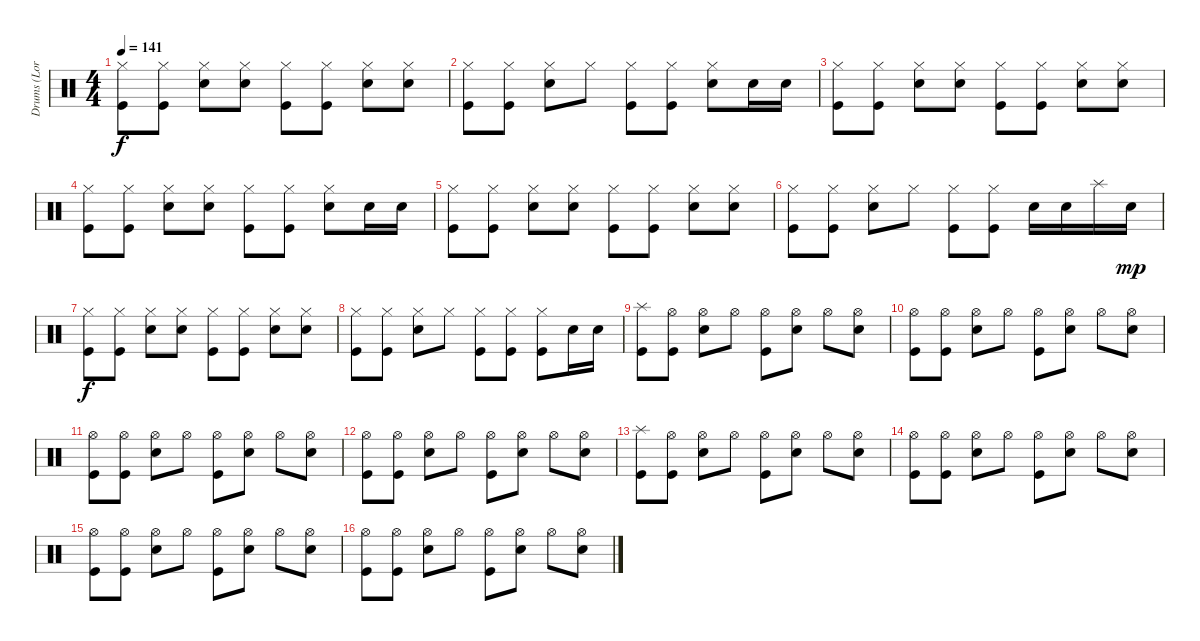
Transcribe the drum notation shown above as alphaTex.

\track ("Drums (Lora)" "Drums (Lor") {instrument percussion}
\staff {score}
\articulation defaults
\ts (4 4)
\tempo 141
\clef neutral
\ks c
("Hi-Hat (closed)" "Kick (hit)").8{dy f} ("Hi-Hat (closed)" "Kick (hit)").8 ("Hi-Hat (closed)" "Snare (hit) 2").8 ("Hi-Hat (closed)" "Snare (hit) 2").8 ("Hi-Hat (closed)" "Kick (hit)").8 ("Hi-Hat (closed)" "Kick (hit)").8 ("Hi-Hat (closed)" "Snare (hit) 2").8 ("Hi-Hat (closed)" "Snare (hit) 2").8 |
("Hi-Hat (closed)" "Kick (hit)").8 ("Hi-Hat (closed)" "Kick (hit)").8 ("Hi-Hat (closed)" "Snare (hit) 2").8 "Hi-Hat (closed)".8 ("Hi-Hat (closed)" "Kick (hit)").8 ("Hi-Hat (closed)" "Kick (hit)").8 ("Hi-Hat (closed)" "Snare (hit) 2").8 "Snare (hit) 2".16 "Snare (hit) 2".16 |
("Hi-Hat (closed)" "Kick (hit)").8 ("Hi-Hat (closed)" "Kick (hit)").8 ("Hi-Hat (closed)" "Snare (hit) 2").8 ("Hi-Hat (closed)" "Snare (hit) 2").8 ("Hi-Hat (closed)" "Kick (hit)").8 ("Hi-Hat (closed)" "Kick (hit)").8 ("Hi-Hat (closed)" "Snare (hit) 2").8 ("Hi-Hat (closed)" "Snare (hit) 2").8 |
("Hi-Hat (closed)" "Kick (hit)").8 ("Hi-Hat (closed)" "Kick (hit)").8 ("Hi-Hat (closed)" "Snare (hit) 2").8 ("Hi-Hat (closed)" "Snare (hit) 2").8 ("Hi-Hat (closed)" "Kick (hit)").8 ("Hi-Hat (closed)" "Kick (hit)").8 ("Hi-Hat (closed)" "Snare (hit) 2").8 "Snare (hit) 2".16 "Snare (hit) 2".16 |
("Hi-Hat (closed)" "Kick (hit)").8 ("Hi-Hat (closed)" "Kick (hit)").8 ("Hi-Hat (closed)" "Snare (hit) 2").8 ("Hi-Hat (closed)" "Snare (hit) 2").8 ("Hi-Hat (closed)" "Kick (hit)").8 ("Hi-Hat (closed)" "Kick (hit)").8 ("Hi-Hat (closed)" "Snare (hit) 2").8 ("Hi-Hat (closed)" "Snare (hit) 2").8 |
("Hi-Hat (closed)" "Kick (hit)").8 ("Hi-Hat (closed)" "Kick (hit)").8 ("Hi-Hat (closed)" "Snare (hit) 2").8 "Hi-Hat (closed)".8 ("Hi-Hat (closed)" "Kick (hit)").8 ("Hi-Hat (closed)" "Kick (hit)").8 "Snare (hit) 2".16 "Snare (hit) 2".16 "Splash (hit)".16 "Snare (hit) 2".16{dy mp} |
("Hi-Hat (closed)" "Kick (hit)").8{dy f} ("Hi-Hat (closed)" "Kick (hit)").8 ("Hi-Hat (closed)" "Snare (hit) 2").8 ("Hi-Hat (closed)" "Snare (hit) 2").8 ("Hi-Hat (closed)" "Kick (hit)").8 ("Hi-Hat (closed)" "Kick (hit)").8 ("Hi-Hat (closed)" "Snare (hit) 2").8 ("Hi-Hat (closed)" "Snare (hit) 2").8 |
("Hi-Hat (closed)" "Kick (hit)").8 ("Hi-Hat (closed)" "Kick (hit)").8 ("Hi-Hat (closed)" "Snare (hit) 2").8 "Hi-Hat (closed)".8 ("Hi-Hat (closed)" "Kick (hit)").8 ("Hi-Hat (closed)" "Kick (hit)").8 ("Hi-Hat (closed)" "Kick (hit)").8 "Snare (hit) 2".16 "Snare (hit) 2".16 |
("Splash (hit)" "Kick (hit)").8 ("Hi-Hat (open)" "Kick (hit)").8 ("Hi-Hat (open)" "Snare (hit) 2").8 "Hi-Hat (open)".8 ("Hi-Hat (open)" "Kick (hit)").8 ("Hi-Hat (open)" "Snare (hit) 2").8 "Hi-Hat (open)".8 ("Hi-Hat (open)" "Snare (hit) 2").8 |
("Hi-Hat (open)" "Kick (hit)").8 ("Hi-Hat (open)" "Kick (hit)").8 ("Hi-Hat (open)" "Snare (hit) 2").8 "Hi-Hat (open)".8 ("Hi-Hat (open)" "Kick (hit)").8 ("Hi-Hat (open)" "Snare (hit) 2").8 "Hi-Hat (open)".8 ("Hi-Hat (open)" "Snare (hit) 2").8 |
("Hi-Hat (open)" "Kick (hit)").8 ("Hi-Hat (open)" "Kick (hit)").8 ("Hi-Hat (open)" "Snare (hit) 2").8 "Hi-Hat (open)".8 ("Hi-Hat (open)" "Kick (hit)").8 ("Hi-Hat (open)" "Snare (hit) 2").8 "Hi-Hat (open)".8 ("Hi-Hat (open)" "Snare (hit) 2").8 |
("Hi-Hat (open)" "Kick (hit)").8 ("Hi-Hat (open)" "Kick (hit)").8 ("Hi-Hat (open)" "Snare (hit) 2").8 "Hi-Hat (open)".8 ("Hi-Hat (open)" "Kick (hit)").8 ("Hi-Hat (open)" "Snare (hit) 2").8 "Hi-Hat (open)".8 ("Hi-Hat (open)" "Snare (hit) 2").8 |
("Splash (hit)" "Kick (hit)").8 ("Hi-Hat (open)" "Kick (hit)").8 ("Hi-Hat (open)" "Snare (hit) 2").8 "Hi-Hat (open)".8 ("Hi-Hat (open)" "Kick (hit)").8 ("Hi-Hat (open)" "Snare (hit) 2").8 "Hi-Hat (open)".8 ("Hi-Hat (open)" "Snare (hit) 2").8 |
("Hi-Hat (open)" "Kick (hit)").8 ("Hi-Hat (open)" "Kick (hit)").8 ("Hi-Hat (open)" "Snare (hit) 2").8 "Hi-Hat (open)".8 ("Hi-Hat (open)" "Kick (hit)").8 ("Hi-Hat (open)" "Snare (hit) 2").8 "Hi-Hat (open)".8 ("Hi-Hat (open)" "Snare (hit) 2").8 |
("Hi-Hat (open)" "Kick (hit)").8 ("Hi-Hat (open)" "Kick (hit)").8 ("Hi-Hat (open)" "Snare (hit) 2").8 "Hi-Hat (open)".8 ("Hi-Hat (open)" "Kick (hit)").8 ("Hi-Hat (open)" "Snare (hit) 2").8 "Hi-Hat (open)".8 ("Hi-Hat (open)" "Snare (hit) 2").8 |
("Hi-Hat (open)" "Kick (hit)").8 ("Hi-Hat (open)" "Kick (hit)").8 ("Hi-Hat (open)" "Snare (hit) 2").8 "Hi-Hat (open)".8 ("Hi-Hat (open)" "Kick (hit)").8 ("Hi-Hat (open)" "Snare (hit) 2").8 "Hi-Hat (open)".8 ("Hi-Hat (open)" "Snare (hit) 2").8
